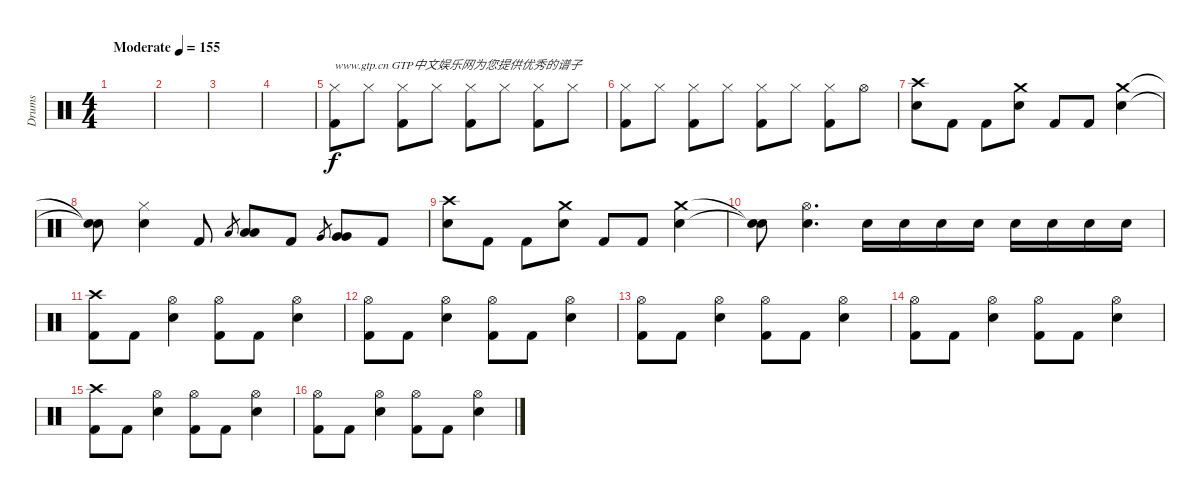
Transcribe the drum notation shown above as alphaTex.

\track ("Drums" "Drums") {instrument percussion}
\staff {score}
\articulation defaults
\ts (4 4)
\tempo (155 "Moderate")
\clef neutral
\ks c
|
|
|
|
("Hi-Hat (closed)" "Kick (hit) 2").8{txt "www.gtp.cn GTP中文娱乐网为您提供优秀的谱子"} "Hi-Hat (closed)".8 ("Hi-Hat (closed)" "Kick (hit) 2").8 "Hi-Hat (closed)".8 ("Hi-Hat (closed)" "Kick (hit) 2").8 "Hi-Hat (closed)".8 ("Hi-Hat (closed)" "Kick (hit) 2").8 "Hi-Hat (closed)".8 |
("Hi-Hat (closed)" "Kick (hit) 2").8 "Hi-Hat (closed)".8 ("Hi-Hat (closed)" "Kick (hit) 2").8 "Hi-Hat (closed)".8 ("Hi-Hat (closed)" "Kick (hit) 2").8 "Hi-Hat (closed)".8 ("Hi-Hat (closed)" "Kick (hit) 2").8 "Hi-Hat (open)".8 |
("Crash high (hit)" "Electric Snare (hit)").8 "Kick (hit) 2".8 "Kick (hit) 2".8 ("Crash medium (hit)" "Electric Snare (hit)").8 "Kick (hit) 2".8 "Kick (hit) 2".8 ("Crash medium (hit)" "Electric Snare (hit)").4 |
("Snare (hit)"{t} "Snare (hit)"{t}).8 ("Hi-Hat (closed)" "Electric Snare (hit)").4 "Kick (hit) 2".8 "Low Tom (hit)".8{gr} ("Low Tom (hit)" "Low Tom (hit)").8 "Kick (hit) 2".8 "Very Low Tom (hit)".8{gr} ("Very Low Tom (hit)" "Very Low Tom (hit)").8 "Kick (hit) 2".8 |
("Crash high (hit)" "Electric Snare (hit)").8 "Kick (hit) 2".8 "Kick (hit) 2".8 ("Crash medium (hit)" "Electric Snare (hit)").8 "Kick (hit) 2".8 "Kick (hit) 2".8 ("Crash medium (hit)" "Electric Snare (hit)").4 |
("Snare (hit)"{t} "Snare (hit)"{t}).8 ("Hi-Hat (open)" "Electric Snare (hit)").4{d} "Electric Snare (hit)".16 "Electric Snare (hit)".16 "Electric Snare (hit)".16 "Electric Snare (hit)".16 "Electric Snare (hit)".16 "Electric Snare (hit)".16 "Electric Snare (hit)".16 "Electric Snare (hit)".16 |
("Crash high (hit)" "Kick (hit) 2").8 "Kick (hit) 2".8 ("Hi-Hat (open)" "Electric Snare (hit)").4 ("Hi-Hat (open)" "Kick (hit) 2").8 "Kick (hit) 2".8 ("Hi-Hat (open)" "Electric Snare (hit)").4 |
("Hi-Hat (open)" "Kick (hit) 2").8 "Kick (hit) 2".8 ("Hi-Hat (open)" "Electric Snare (hit)").4 ("Hi-Hat (open)" "Kick (hit) 2").8 "Kick (hit) 2".8 ("Hi-Hat (open)" "Electric Snare (hit)").4 |
("Hi-Hat (open)" "Kick (hit) 2").8 "Kick (hit) 2".8 ("Hi-Hat (open)" "Electric Snare (hit)").4 ("Hi-Hat (open)" "Kick (hit) 2").8 "Kick (hit) 2".8 ("Hi-Hat (open)" "Electric Snare (hit)").4 |
("Hi-Hat (open)" "Kick (hit) 2").8 "Kick (hit) 2".8 ("Hi-Hat (open)" "Electric Snare (hit)").4 ("Hi-Hat (open)" "Kick (hit) 2").8 "Kick (hit) 2".8 ("Hi-Hat (open)" "Electric Snare (hit)").4 |
("Crash high (hit)" "Kick (hit) 2").8 "Kick (hit) 2".8 ("Hi-Hat (open)" "Electric Snare (hit)").4 ("Hi-Hat (open)" "Kick (hit) 2").8 "Kick (hit) 2".8 ("Hi-Hat (open)" "Electric Snare (hit)").4 |
("Hi-Hat (open)" "Kick (hit) 2").8 "Kick (hit) 2".8 ("Hi-Hat (open)" "Electric Snare (hit)").4 ("Hi-Hat (open)" "Kick (hit) 2").8 "Kick (hit) 2".8 ("Hi-Hat (open)" "Electric Snare (hit)").4
